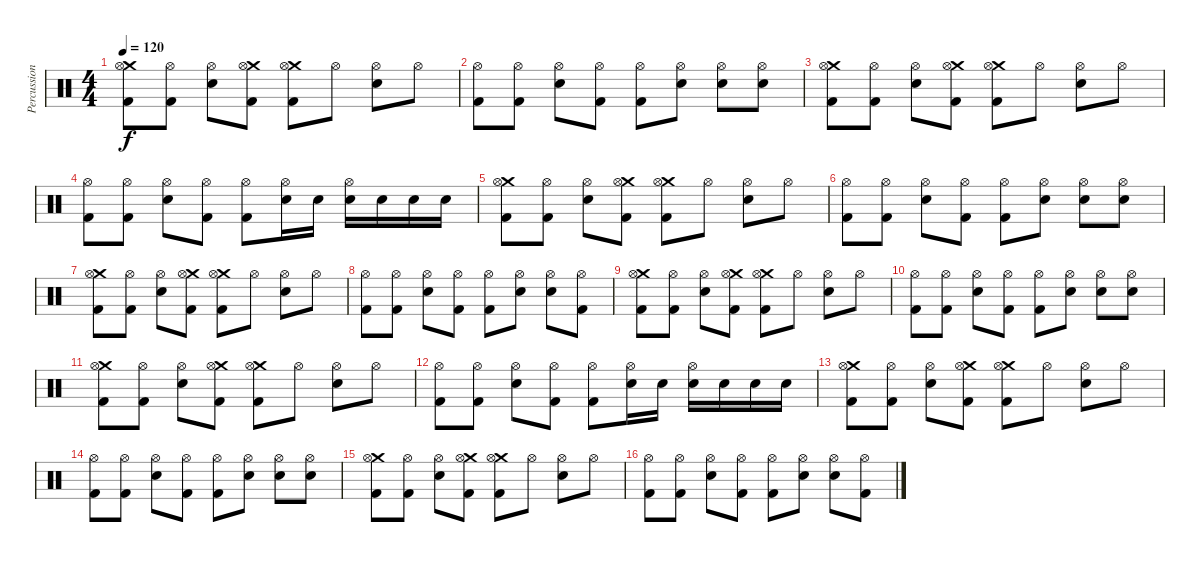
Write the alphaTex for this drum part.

\track ("Percussion" "Percussion") {instrument percussion}
\staff {score}
\articulation defaults
\ts (4 4)
\tempo 120
\clef neutral
\ks c
("Crash medium (hit)" "Hi-Hat (open)" "Kick (hit) 2").8{dy f} ("Hi-Hat (open)" "Kick (hit) 2").8 ("Hi-Hat (open)" "Electric Snare (hit)").8 ("Crash medium (hit)" "Hi-Hat (open)" "Kick (hit) 2").8 ("Crash medium (hit)" "Hi-Hat (open)" "Kick (hit) 2").8 "Hi-Hat (open)".8 ("Hi-Hat (open)" "Electric Snare (hit)").8 "Hi-Hat (open)".8 |
("Hi-Hat (open)" "Kick (hit) 2").8 ("Hi-Hat (open)" "Kick (hit) 2").8 ("Hi-Hat (open)" "Electric Snare (hit)").8 ("Hi-Hat (open)" "Kick (hit) 2").8 ("Hi-Hat (open)" "Kick (hit) 2").8 ("Hi-Hat (open)" "Electric Snare (hit)").8 ("Hi-Hat (open)" "Electric Snare (hit)").8 ("Hi-Hat (open)" "Electric Snare (hit)").8 |
("Crash medium (hit)" "Hi-Hat (open)" "Kick (hit) 2").8 ("Hi-Hat (open)" "Kick (hit) 2").8 ("Hi-Hat (open)" "Electric Snare (hit)").8 ("Crash medium (hit)" "Hi-Hat (open)" "Kick (hit) 2").8 ("Crash medium (hit)" "Hi-Hat (open)" "Kick (hit) 2").8 "Hi-Hat (open)".8 ("Hi-Hat (open)" "Electric Snare (hit)").8 "Hi-Hat (open)".8 |
("Hi-Hat (open)" "Kick (hit) 2").8 ("Hi-Hat (open)" "Kick (hit) 2").8 ("Hi-Hat (open)" "Electric Snare (hit)").8 ("Hi-Hat (open)" "Kick (hit) 2").8 ("Hi-Hat (open)" "Kick (hit) 2").8 ("Hi-Hat (open)" "Electric Snare (hit)").16 "Electric Snare (hit)".16 ("Hi-Hat (open)" "Electric Snare (hit)").16 "Electric Snare (hit)".16 "Electric Snare (hit)".16 "Electric Snare (hit)".16 |
("Crash medium (hit)" "Hi-Hat (open)" "Kick (hit) 2").8 ("Hi-Hat (open)" "Kick (hit) 2").8 ("Hi-Hat (open)" "Electric Snare (hit)").8 ("Crash medium (hit)" "Hi-Hat (open)" "Kick (hit) 2").8 ("Crash medium (hit)" "Hi-Hat (open)" "Kick (hit) 2").8 "Hi-Hat (open)".8 ("Hi-Hat (open)" "Electric Snare (hit)").8 "Hi-Hat (open)".8 |
("Hi-Hat (open)" "Kick (hit) 2").8 ("Hi-Hat (open)" "Kick (hit) 2").8 ("Hi-Hat (open)" "Electric Snare (hit)").8 ("Hi-Hat (open)" "Kick (hit) 2").8 ("Hi-Hat (open)" "Kick (hit) 2").8 ("Hi-Hat (open)" "Electric Snare (hit)").8 ("Hi-Hat (open)" "Electric Snare (hit)").8 ("Hi-Hat (open)" "Electric Snare (hit)").8 |
("Crash medium (hit)" "Hi-Hat (open)" "Kick (hit) 2").8 ("Hi-Hat (open)" "Kick (hit) 2").8 ("Hi-Hat (open)" "Electric Snare (hit)").8 ("Crash medium (hit)" "Hi-Hat (open)" "Kick (hit) 2").8 ("Crash medium (hit)" "Hi-Hat (open)" "Kick (hit) 2").8 "Hi-Hat (open)".8 ("Hi-Hat (open)" "Electric Snare (hit)").8 "Hi-Hat (open)".8 |
("Hi-Hat (open)" "Kick (hit) 2").8 ("Hi-Hat (open)" "Kick (hit) 2").8 ("Hi-Hat (open)" "Electric Snare (hit)").8 ("Hi-Hat (open)" "Kick (hit) 2").8 ("Hi-Hat (open)" "Kick (hit) 2").8 ("Hi-Hat (open)" "Electric Snare (hit)").8 ("Hi-Hat (open)" "Electric Snare (hit)").8 ("Hi-Hat (open)" "Kick (hit) 2").8 |
("Crash medium (hit)" "Hi-Hat (open)" "Kick (hit) 2").8 ("Hi-Hat (open)" "Kick (hit) 2").8 ("Hi-Hat (open)" "Electric Snare (hit)").8 ("Crash medium (hit)" "Hi-Hat (open)" "Kick (hit) 2").8 ("Crash medium (hit)" "Hi-Hat (open)" "Kick (hit) 2").8 "Hi-Hat (open)".8 ("Hi-Hat (open)" "Electric Snare (hit)").8 "Hi-Hat (open)".8 |
("Hi-Hat (open)" "Kick (hit) 2").8 ("Hi-Hat (open)" "Kick (hit) 2").8 ("Hi-Hat (open)" "Electric Snare (hit)").8 ("Hi-Hat (open)" "Kick (hit) 2").8 ("Hi-Hat (open)" "Kick (hit) 2").8 ("Hi-Hat (open)" "Electric Snare (hit)").8 ("Hi-Hat (open)" "Electric Snare (hit)").8 ("Hi-Hat (open)" "Electric Snare (hit)").8 |
("Crash medium (hit)" "Hi-Hat (open)" "Kick (hit) 2").8 ("Hi-Hat (open)" "Kick (hit) 2").8 ("Hi-Hat (open)" "Electric Snare (hit)").8 ("Crash medium (hit)" "Hi-Hat (open)" "Kick (hit) 2").8 ("Crash medium (hit)" "Hi-Hat (open)" "Kick (hit) 2").8 "Hi-Hat (open)".8 ("Hi-Hat (open)" "Electric Snare (hit)").8 "Hi-Hat (open)".8 |
("Hi-Hat (open)" "Kick (hit) 2").8 ("Hi-Hat (open)" "Kick (hit) 2").8 ("Hi-Hat (open)" "Electric Snare (hit)").8 ("Hi-Hat (open)" "Kick (hit) 2").8 ("Hi-Hat (open)" "Kick (hit) 2").8 ("Hi-Hat (open)" "Electric Snare (hit)").16 "Electric Snare (hit)".16 ("Hi-Hat (open)" "Electric Snare (hit)").16 "Electric Snare (hit)".16 "Electric Snare (hit)".16 "Electric Snare (hit)".16 |
("Crash medium (hit)" "Hi-Hat (open)" "Kick (hit) 2").8 ("Hi-Hat (open)" "Kick (hit) 2").8 ("Hi-Hat (open)" "Electric Snare (hit)").8 ("Crash medium (hit)" "Hi-Hat (open)" "Kick (hit) 2").8 ("Crash medium (hit)" "Hi-Hat (open)" "Kick (hit) 2").8 "Hi-Hat (open)".8 ("Hi-Hat (open)" "Electric Snare (hit)").8 "Hi-Hat (open)".8 |
("Hi-Hat (open)" "Kick (hit) 2").8 ("Hi-Hat (open)" "Kick (hit) 2").8 ("Hi-Hat (open)" "Electric Snare (hit)").8 ("Hi-Hat (open)" "Kick (hit) 2").8 ("Hi-Hat (open)" "Kick (hit) 2").8 ("Hi-Hat (open)" "Electric Snare (hit)").8 ("Hi-Hat (open)" "Electric Snare (hit)").8 ("Hi-Hat (open)" "Electric Snare (hit)").8 |
("Crash medium (hit)" "Hi-Hat (open)" "Kick (hit) 2").8 ("Hi-Hat (open)" "Kick (hit) 2").8 ("Hi-Hat (open)" "Electric Snare (hit)").8 ("Crash medium (hit)" "Hi-Hat (open)" "Kick (hit) 2").8 ("Crash medium (hit)" "Hi-Hat (open)" "Kick (hit) 2").8 "Hi-Hat (open)".8 ("Hi-Hat (open)" "Electric Snare (hit)").8 "Hi-Hat (open)".8 |
("Hi-Hat (open)" "Kick (hit) 2").8 ("Hi-Hat (open)" "Kick (hit) 2").8 ("Hi-Hat (open)" "Electric Snare (hit)").8 ("Hi-Hat (open)" "Kick (hit) 2").8 ("Hi-Hat (open)" "Kick (hit) 2").8 ("Hi-Hat (open)" "Electric Snare (hit)").8 ("Hi-Hat (open)" "Electric Snare (hit)").8 ("Hi-Hat (open)" "Kick (hit) 2").8
